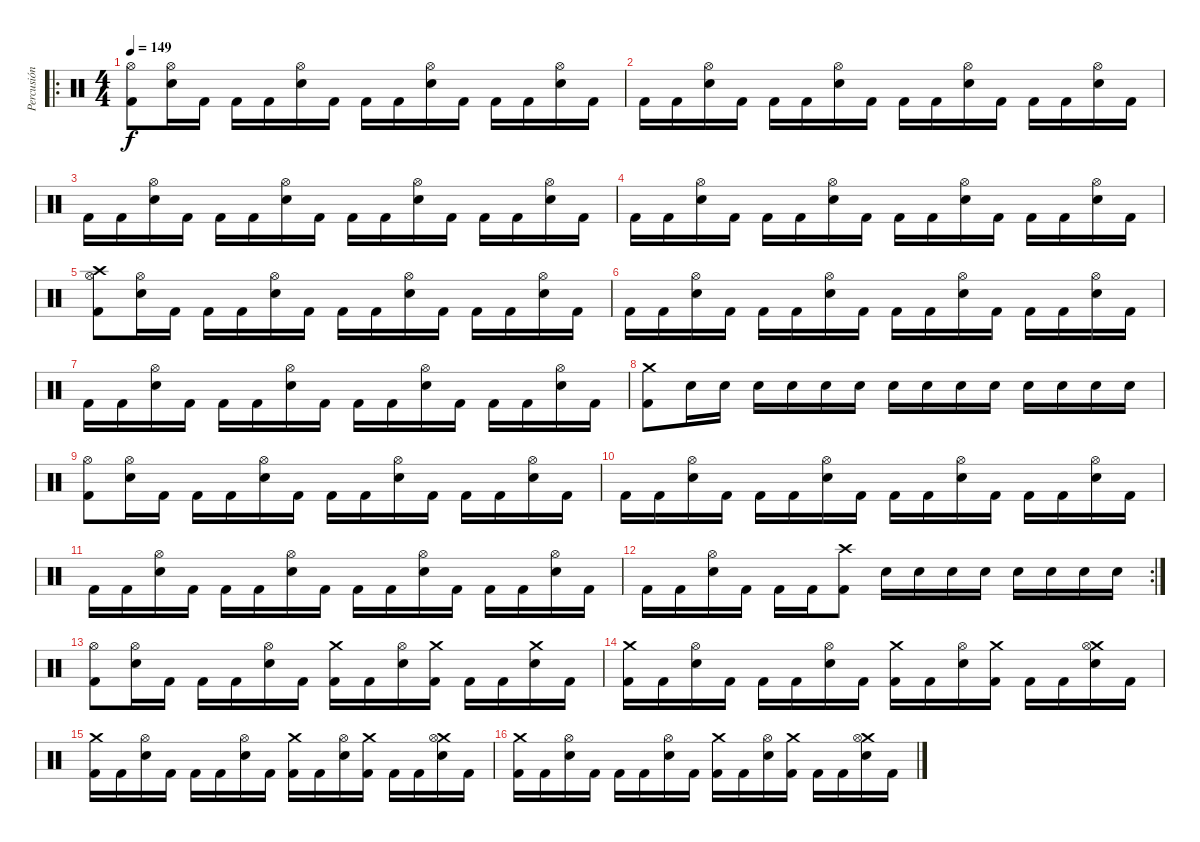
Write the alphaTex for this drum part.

\track ("Percusión" "Percusión") {instrument percussion}
\staff {score}
\articulation defaults
\ro
\ts (4 4)
\tempo 149
\clef neutral
\ks c
("Hi-Hat (open)" "Kick (hit) 2").8{dy f} ("Hi-Hat (open)" "Snare (hit) 2").16 "Kick (hit) 2".16 "Kick (hit) 2".16 "Kick (hit) 2".16 ("Hi-Hat (open)" "Snare (hit) 2").16 "Kick (hit) 2".16 "Kick (hit) 2".16 "Kick (hit) 2".16 ("Hi-Hat (open)" "Snare (hit) 2").16 "Kick (hit) 2".16 "Kick (hit) 2".16 "Kick (hit) 2".16 ("Hi-Hat (open)" "Snare (hit) 2").16 "Kick (hit) 2".16 |
"Kick (hit) 2".16 "Kick (hit) 2".16 ("Hi-Hat (open)" "Snare (hit) 2").16 "Kick (hit) 2".16 "Kick (hit) 2".16 "Kick (hit) 2".16 ("Hi-Hat (open)" "Snare (hit) 2").16 "Kick (hit) 2".16 "Kick (hit) 2".16 "Kick (hit) 2".16 ("Hi-Hat (open)" "Snare (hit) 2").16 "Kick (hit) 2".16 "Kick (hit) 2".16 "Kick (hit) 2".16 ("Hi-Hat (open)" "Snare (hit) 2").16 "Kick (hit) 2".16 |
"Kick (hit) 2".16 "Kick (hit) 2".16 ("Hi-Hat (open)" "Snare (hit) 2").16 "Kick (hit) 2".16 "Kick (hit) 2".16 "Kick (hit) 2".16 ("Hi-Hat (open)" "Snare (hit) 2").16 "Kick (hit) 2".16 "Kick (hit) 2".16 "Kick (hit) 2".16 ("Hi-Hat (open)" "Snare (hit) 2").16 "Kick (hit) 2".16 "Kick (hit) 2".16 "Kick (hit) 2".16 ("Hi-Hat (open)" "Snare (hit) 2").16 "Kick (hit) 2".16 |
"Kick (hit) 2".16 "Kick (hit) 2".16 ("Hi-Hat (open)" "Snare (hit) 2").16 "Kick (hit) 2".16 "Kick (hit) 2".16 "Kick (hit) 2".16 ("Hi-Hat (open)" "Snare (hit) 2").16 "Kick (hit) 2".16 "Kick (hit) 2".16 "Kick (hit) 2".16 ("Hi-Hat (open)" "Snare (hit) 2").16 "Kick (hit) 2".16 "Kick (hit) 2".16 "Kick (hit) 2".16 ("Hi-Hat (open)" "Snare (hit) 2").16 "Kick (hit) 2".16 |
("Crash high (hit)" "Hi-Hat (open)" "Kick (hit) 2").8 ("Hi-Hat (open)" "Snare (hit) 2").16 "Kick (hit) 2".16 "Kick (hit) 2".16 "Kick (hit) 2".16 ("Hi-Hat (open)" "Snare (hit) 2").16 "Kick (hit) 2".16 "Kick (hit) 2".16 "Kick (hit) 2".16 ("Hi-Hat (open)" "Snare (hit) 2").16 "Kick (hit) 2".16 "Kick (hit) 2".16 "Kick (hit) 2".16 ("Hi-Hat (open)" "Snare (hit) 2").16 "Kick (hit) 2".16 |
"Kick (hit) 2".16 "Kick (hit) 2".16 ("Hi-Hat (open)" "Snare (hit) 2").16 "Kick (hit) 2".16 "Kick (hit) 2".16 "Kick (hit) 2".16 ("Hi-Hat (open)" "Snare (hit) 2").16 "Kick (hit) 2".16 "Kick (hit) 2".16 "Kick (hit) 2".16 ("Hi-Hat (open)" "Snare (hit) 2").16 "Kick (hit) 2".16 "Kick (hit) 2".16 "Kick (hit) 2".16 ("Hi-Hat (open)" "Snare (hit) 2").16 "Kick (hit) 2".16 |
"Kick (hit) 2".16 "Kick (hit) 2".16 ("Hi-Hat (open)" "Snare (hit) 2").16 "Kick (hit) 2".16 "Kick (hit) 2".16 "Kick (hit) 2".16 ("Hi-Hat (open)" "Snare (hit) 2").16 "Kick (hit) 2".16 "Kick (hit) 2".16 "Kick (hit) 2".16 ("Hi-Hat (open)" "Snare (hit) 2").16 "Kick (hit) 2".16 "Kick (hit) 2".16 "Kick (hit) 2".16 ("Hi-Hat (open)" "Snare (hit) 2").16 "Kick (hit) 2".16 |
("Crash medium (hit)" "Kick (hit) 2").8 "Snare (hit) 2".16 "Snare (hit) 2".16 "Snare (hit) 2".16 "Snare (hit) 2".16 "Snare (hit) 2".16 "Snare (hit) 2".16 "Snare (hit) 2".16 "Snare (hit) 2".16 "Snare (hit) 2".16 "Snare (hit) 2".16 "Snare (hit) 2".16 "Snare (hit) 2".16 "Snare (hit) 2".16 "Snare (hit) 2".16 |
("Hi-Hat (open)" "Kick (hit) 2").8 ("Hi-Hat (open)" "Snare (hit) 2").16 "Kick (hit) 2".16 "Kick (hit) 2".16 "Kick (hit) 2".16 ("Hi-Hat (open)" "Snare (hit) 2").16 "Kick (hit) 2".16 "Kick (hit) 2".16 "Kick (hit) 2".16 ("Hi-Hat (open)" "Snare (hit) 2").16 "Kick (hit) 2".16 "Kick (hit) 2".16 "Kick (hit) 2".16 ("Hi-Hat (open)" "Snare (hit) 2").16 "Kick (hit) 2".16 |
"Kick (hit) 2".16 "Kick (hit) 2".16 ("Hi-Hat (open)" "Snare (hit) 2").16 "Kick (hit) 2".16 "Kick (hit) 2".16 "Kick (hit) 2".16 ("Hi-Hat (open)" "Snare (hit) 2").16 "Kick (hit) 2".16 "Kick (hit) 2".16 "Kick (hit) 2".16 ("Hi-Hat (open)" "Snare (hit) 2").16 "Kick (hit) 2".16 "Kick (hit) 2".16 "Kick (hit) 2".16 ("Hi-Hat (open)" "Snare (hit) 2").16 "Kick (hit) 2".16 |
"Kick (hit) 2".16 "Kick (hit) 2".16 ("Hi-Hat (open)" "Snare (hit) 2").16 "Kick (hit) 2".16 "Kick (hit) 2".16 "Kick (hit) 2".16 ("Hi-Hat (open)" "Snare (hit) 2").16 "Kick (hit) 2".16 "Kick (hit) 2".16 "Kick (hit) 2".16 ("Hi-Hat (open)" "Snare (hit) 2").16 "Kick (hit) 2".16 "Kick (hit) 2".16 "Kick (hit) 2".16 ("Hi-Hat (open)" "Snare (hit) 2").16 "Kick (hit) 2".16 |
\rc 2 "Kick (hit) 2".16 "Kick (hit) 2".16
("Hi-Hat (open)" "Snare (hit) 2").16 "Kick (hit) 2".16 "Kick (hit) 2".16 "Kick (hit) 2".16 ("Crash high (hit)" "Kick (hit) 2").8 "Snare (hit) 2".16 "Snare (hit) 2".16 "Snare (hit) 2".16 "Snare (hit) 2".16 "Snare (hit) 2".16 "Snare (hit) 2".16 "Snare (hit) 2".16 "Snare (hit) 2".16 |
("Hi-Hat (open)" "Kick (hit) 2").8 ("Hi-Hat (open)" "Snare (hit) 2").16 "Kick (hit) 2".16 "Kick (hit) 2".16 "Kick (hit) 2".16 ("Hi-Hat (open)" "Snare (hit) 2").16 "Kick (hit) 2".16 ("Crash medium (hit)" "Kick (hit) 2").16 "Kick (hit) 2".16 ("Hi-Hat (open)" "Snare (hit) 2").16 ("Crash medium (hit)" "Kick (hit) 2").16 "Kick (hit) 2".16 "Kick (hit) 2".16 ("Crash medium (hit)" "Snare (hit) 2").16 "Kick (hit) 2".16 |
("Crash medium (hit)" "Kick (hit) 2").16 "Kick (hit) 2".16 ("Hi-Hat (open)" "Snare (hit) 2").16 "Kick (hit) 2".16 "Kick (hit) 2".16 "Kick (hit) 2".16 ("Hi-Hat (open)" "Snare (hit) 2").16 "Kick (hit) 2".16 ("Crash medium (hit)" "Kick (hit) 2").16 "Kick (hit) 2".16 ("Hi-Hat (open)" "Snare (hit) 2").16 ("Crash medium (hit)" "Kick (hit) 2").16 "Kick (hit) 2".16 "Kick (hit) 2".16 ("Crash medium (hit)" "Hi-Hat (open)" "Snare (hit) 2").16 "Kick (hit) 2".16 |
("Crash medium (hit)" "Kick (hit) 2").16 "Kick (hit) 2".16 ("Hi-Hat (open)" "Snare (hit) 2").16 "Kick (hit) 2".16 "Kick (hit) 2".16 "Kick (hit) 2".16 ("Hi-Hat (open)" "Snare (hit) 2").16 "Kick (hit) 2".16 ("Crash medium (hit)" "Kick (hit) 2").16 "Kick (hit) 2".16 ("Hi-Hat (open)" "Snare (hit) 2").16 ("Crash medium (hit)" "Kick (hit) 2").16 "Kick (hit) 2".16 "Kick (hit) 2".16 ("Crash medium (hit)" "Hi-Hat (open)" "Snare (hit) 2").16 "Kick (hit) 2".16 |
("Crash medium (hit)" "Kick (hit) 2").16 "Kick (hit) 2".16 ("Hi-Hat (open)" "Snare (hit) 2").16 "Kick (hit) 2".16 "Kick (hit) 2".16 "Kick (hit) 2".16 ("Hi-Hat (open)" "Snare (hit) 2").16 "Kick (hit) 2".16 ("Crash medium (hit)" "Kick (hit) 2").16 "Kick (hit) 2".16 ("Hi-Hat (open)" "Snare (hit) 2").16 ("Crash medium (hit)" "Kick (hit) 2").16 "Kick (hit) 2".16 "Kick (hit) 2".16 ("Crash medium (hit)" "Hi-Hat (open)" "Snare (hit) 2").16 "Kick (hit) 2".16
